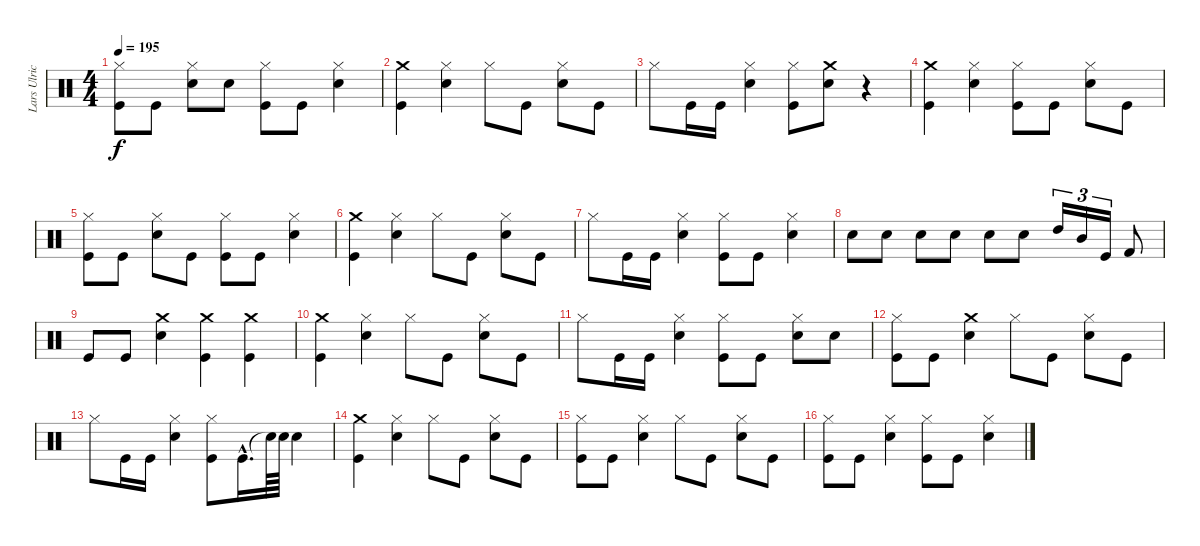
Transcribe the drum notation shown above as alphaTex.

\track ("Lars Ulrich (Drums)" "Lars Ulric") {instrument percussion}
\staff {score}
\articulation defaults
\ts (4 4)
\tempo 195
\clef neutral
\ks c
("Kick (hit)" "Hi-Hat (closed)").8{dy f} "Kick (hit)".8 ("Snare (hit) 2" "Hi-Hat (closed)").8 "Snare (hit) 2".8 ("Kick (hit)" "Hi-Hat (closed)").8 "Kick (hit)".8 ("Snare (hit) 2" "Hi-Hat (closed)").4 |
("Kick (hit)" "Crash medium (hit)").4 ("Hi-Hat (closed)" "Snare (hit) 2").4 "Hi-Hat (closed)".8 "Kick (hit)".8 ("Snare (hit) 2" "Hi-Hat (closed)").8 "Kick (hit)".8 |
"Hi-Hat (closed)".8 "Kick (hit)".16 "Kick (hit)".16 ("Snare (hit) 2" "Hi-Hat (closed)").4 ("Kick (hit)" "Hi-Hat (closed)").8 ("Crash medium (hit)" "Snare (hit) 2").8 r.4 |
("Kick (hit)" "Crash medium (hit)").4 ("Hi-Hat (closed)" "Snare (hit) 2").4 ("Kick (hit)" "Hi-Hat (closed)").8 "Kick (hit)".8 ("Snare (hit) 2" "Hi-Hat (closed)").8 "Kick (hit)".8 |
("Hi-Hat (closed)" "Kick (hit)").8 "Kick (hit)".8 ("Snare (hit) 2" "Hi-Hat (closed)").8 "Kick (hit)".8 ("Hi-Hat (closed)" "Kick (hit)").8 "Kick (hit)".8 ("Snare (hit) 2" "Hi-Hat (closed)").4 |
("Kick (hit)" "Crash medium (hit)").4 ("Hi-Hat (closed)" "Snare (hit) 2").4 "Hi-Hat (closed)".8 "Kick (hit)".8 ("Snare (hit) 2" "Hi-Hat (closed)").8 "Kick (hit)".8 |
"Hi-Hat (closed)".8 "Kick (hit)".16 "Kick (hit)".16 ("Snare (hit) 2" "Hi-Hat (closed)").4 ("Kick (hit)" "Hi-Hat (closed)").8 "Kick (hit)".8 ("Snare (hit) 2" "Hi-Hat (closed)").4 |
"Snare (hit) 2".8 "Snare (hit) 2".8 "Snare (hit) 2".8 "Snare (hit) 2".8 "Snare (hit) 2".8 "Snare (hit) 2".8 "High Tom (hit)".16{tu (3 2)} "Mid Tom (hit)".16{tu (3 2)} "Kick (hit)".16{tu (3 2)} "Kick (hit) 2".8 |
"Kick (hit)".8 "Kick (hit)".8 ("Crash medium (hit)" "Snare (hit) 2").4 ("Crash medium (hit)" "Kick (hit)").4 ("Crash medium (hit)" "Kick (hit)").4 |
("Kick (hit)" "Crash medium (hit)").4 ("Hi-Hat (closed)" "Snare (hit) 2").4 "Hi-Hat (closed)".8 "Kick (hit)".8 ("Snare (hit) 2" "Hi-Hat (closed)").8 "Kick (hit)".8 |
"Hi-Hat (closed)".8 "Kick (hit)".16 "Kick (hit)".16 ("Snare (hit) 2" "Hi-Hat (closed)").4 ("Hi-Hat (closed)" "Kick (hit)").8 "Kick (hit)".8 ("Snare (hit) 2" "Hi-Hat (closed)").8 "Snare (hit) 2".8 |
("Hi-Hat (closed)" "Kick (hit)").8 "Kick (hit)".8 ("Crash medium (hit)" "Snare (hit) 2").4 "Hi-Hat (closed)".8 "Kick (hit)".8 ("Snare (hit) 2" "Hi-Hat (closed)").8 "Kick (hit)".8 |
"Hi-Hat (closed)".8 "Kick (hit)".16 "Kick (hit)".16 ("Snare (hit) 2" "Hi-Hat (closed)").4 ("Hi-Hat (closed)" "Kick (hit)").8 "Kick (hit)"{hac}.16{d} "Snare (hit)"{t}.64 "Snare (hit) 2".64 "Snare (hit) 2".4 |
("Kick (hit)" "Crash medium (hit)").4 ("Hi-Hat (closed)" "Snare (hit) 2").4 "Hi-Hat (closed)".8 "Kick (hit)".8 ("Snare (hit) 2" "Hi-Hat (closed)").8 "Kick (hit)".8 |
("Kick (hit)" "Hi-Hat (closed)").8 "Kick (hit)".8 ("Snare (hit) 2" "Hi-Hat (closed)").4 "Hi-Hat (closed)".8 "Kick (hit)".8 ("Snare (hit) 2" "Hi-Hat (closed)").8 "Kick (hit)".8 |
("Kick (hit)" "Hi-Hat (closed)").8 "Kick (hit)".8 ("Snare (hit) 2" "Hi-Hat (closed)").4 ("Kick (hit)" "Hi-Hat (closed)").8 "Kick (hit)".8 ("Snare (hit) 2" "Hi-Hat (closed)").4
